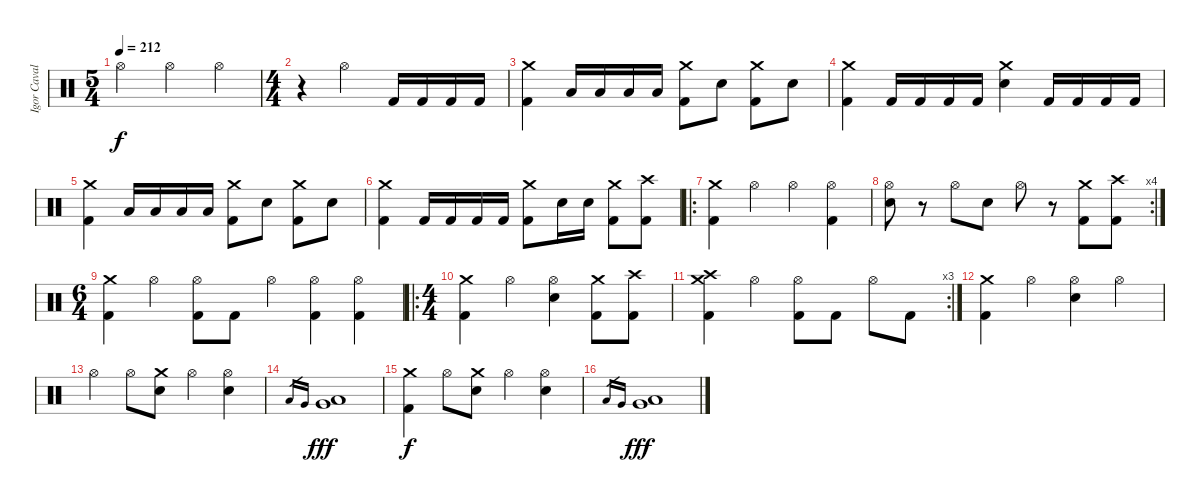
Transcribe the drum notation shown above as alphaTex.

\track ("Igor Cavalera" "Igor Caval") {instrument percussion}
\staff {score}
\articulation defaults
\ts (5 4)
\tempo 212
\clef neutral
\ks c "Hi-Hat (open)".2{dy f} "Hi-Hat (open)".2 "Hi-Hat (open)".4
|
\ts (4 4)
r.4 "Hi-Hat (open)".2 "Kick (hit) 2".16 "Kick (hit) 2".16 "Kick (hit) 2".16 "Kick (hit) 2".16 |
("Kick (hit) 2" "Crash medium (hit)").4 "Low Tom (hit)".16 "Low Tom (hit)".16 "Low Tom (hit)".16 "Low Tom (hit)".16 ("Kick (hit) 2" "Crash medium (hit)").8 "Snare (hit) 2".8 ("Kick (hit) 2" "Crash medium (hit)").8 "Snare (hit) 2".8 |
("Kick (hit) 2" "Crash medium (hit)").4 "Kick (hit) 2".16 "Kick (hit) 2".16 "Kick (hit) 2".16 "Kick (hit) 2".16 ("Snare (hit) 2" "Crash medium (hit)").4 "Kick (hit) 2".16 "Kick (hit) 2".16 "Kick (hit) 2".16 "Kick (hit) 2".16 |
("Kick (hit) 2" "Crash medium (hit)").4 "Low Tom (hit)".16 "Low Tom (hit)".16 "Low Tom (hit)".16 "Low Tom (hit)".16 ("Kick (hit) 2" "Crash medium (hit)").8 "Snare (hit) 2".8 ("Kick (hit) 2" "Crash medium (hit)").8 "Snare (hit) 2".8 |
("Kick (hit) 2" "Crash medium (hit)").4 "Kick (hit) 2".16 "Kick (hit) 2".16 "Kick (hit) 2".16 "Kick (hit) 2".16 ("Crash medium (hit)" "Kick (hit) 2").8 "Snare (hit) 2".16 "Snare (hit) 2".16 ("Kick (hit) 2" "Crash medium (hit)").8 ("Kick (hit) 2" "Crash high (hit)").8 |
\ro
("Kick (hit) 2" "Crash medium (hit)").4 "Hi-Hat (open)".4 "Hi-Hat (open)".4 ("Kick (hit) 2" "Hi-Hat (open)").4 |
\rc 4
("Snare (hit) 2" "Hi-Hat (open)").8 r.8 "Hi-Hat (open)".8 "Snare (hit) 2".8 "Hi-Hat (open)".8 r.8 ("Crash medium (hit)" "Kick (hit) 2").8 ("Crash high (hit)" "Kick (hit) 2").8 |
\ts (6 4)
("Kick (hit) 2" "Crash medium (hit)").4 "Hi-Hat (open)".4 ("Kick (hit) 2" "Hi-Hat (open)").8 "Kick (hit) 2".8 "Hi-Hat (open)".4 ("Kick (hit) 2" "Hi-Hat (open)").4 ("Kick (hit) 2" "Hi-Hat (open)").4 |
\ro
\ts (4 4)
("Crash medium (hit)" "Kick (hit) 2").4 "Hi-Hat (open)".4 ("Snare (hit) 2" "Hi-Hat (open)").4 ("Crash medium (hit)" "Kick (hit) 2").8 ("Crash high (hit)" "Kick (hit) 2").8 |
\rc 3
("Crash medium (hit)" "Crash high (hit)" "Kick (hit) 2").4 "Hi-Hat (open)".4 ("Kick (hit) 2" "Hi-Hat (open)").8 "Kick (hit) 2".8 "Hi-Hat (open)".8 "Kick (hit) 2".8 |
("Crash medium (hit)" "Kick (hit) 2").4 "Hi-Hat (open)".4 ("Snare (hit) 2" "Hi-Hat (open)").4 "Hi-Hat (open)".4 |
"Hi-Hat (open)".4 "Hi-Hat (open)".8 ("Snare (hit) 2" "Crash medium (hit)").8 "Hi-Hat (open)".4 ("Snare (hit) 2" "Hi-Hat (open)").4 |
"Low Tom (hit)".16{gr} "Very Low Tom (hit)".16{gr} ("Low Tom (hit)" "Very Low Tom (hit)").1{dy fff} |
("Crash medium (hit)" "Kick (hit) 2").4{dy f} "Hi-Hat (open)".8 ("Snare (hit) 2" "Crash medium (hit)").8 "Hi-Hat (open)".4 ("Snare (hit) 2" "Hi-Hat (open)").4 |
"Low Tom (hit)".16{gr} "Very Low Tom (hit)".16{gr} ("Low Tom (hit)" "Very Low Tom (hit)").1{dy fff}
